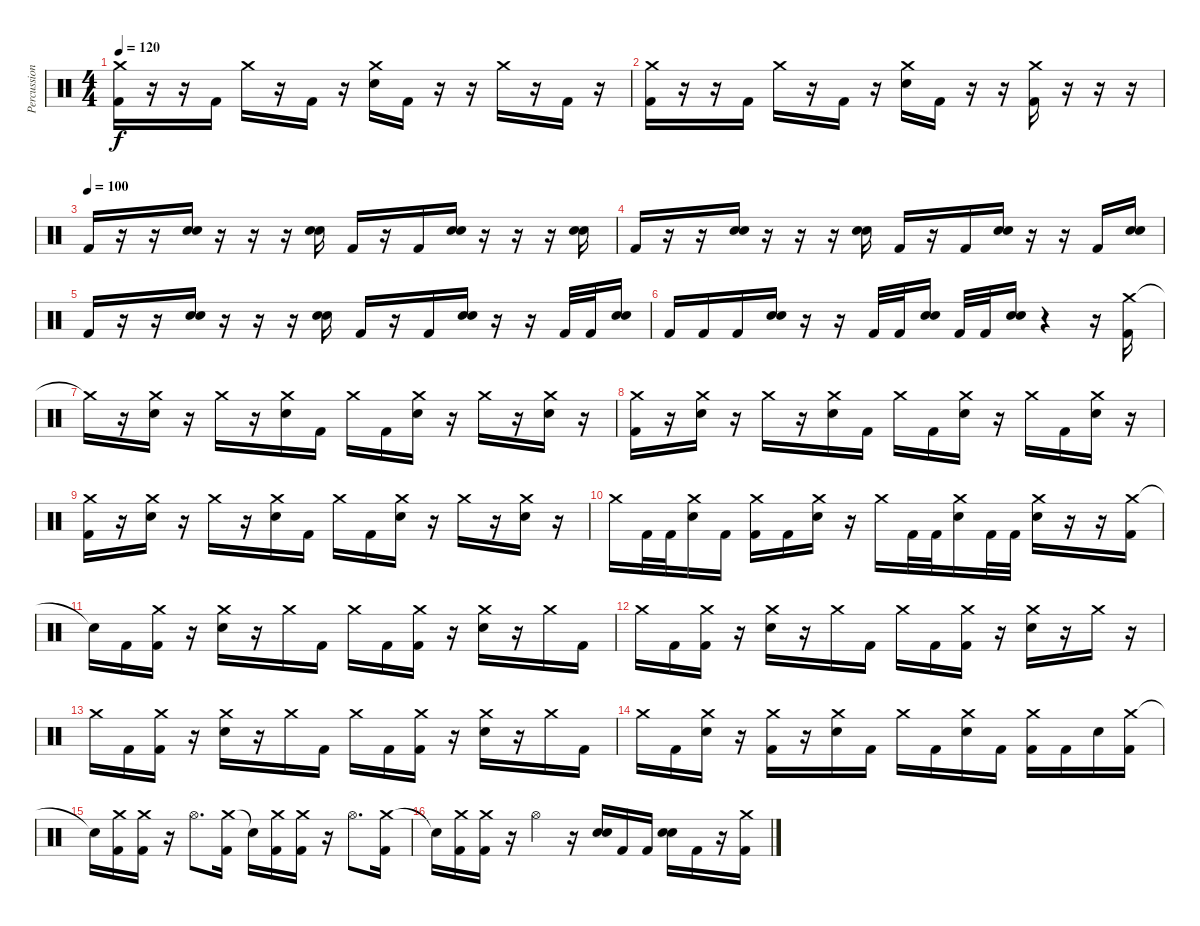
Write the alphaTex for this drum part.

\track ("Percussion" "Percussion") {instrument percussion}
\staff {score}
\articulation defaults
\ts (4 4)
\tempo 120
\clef neutral
\ks c
("Crash medium (hit)" "Kick (hit) 2").16{dy f} r.16 r.16 "Kick (hit) 2".16 "Crash medium (hit)".16 r.16 "Kick (hit) 2".16 r.16 ("Crash medium (hit)" "Electric Snare (hit)").16 "Kick (hit) 2".16 r.16 r.16 "Crash medium (hit)".16 r.16 "Kick (hit) 2".16 r.16 |
("Crash medium (hit)" "Kick (hit) 2").16 r.16 r.16 "Kick (hit) 2".16 "Crash medium (hit)".16 r.16 "Kick (hit) 2".16 r.16 ("Crash medium (hit)" "Electric Snare (hit)").16 "Kick (hit) 2".16 r.16 r.16 ("Crash medium (hit)" "Kick (hit) 2").16 r.16 r.16 r.16 |
\tempo (100)
"Kick (hit) 2".16 r.16 r.16 ("Electric Snare (hit)" "Electric Snare (hit)").16{bu 60} r.16 r.16 r.16 ("Electric Snare (hit)" "Electric Snare (hit)").16{bu 60} "Kick (hit) 2".16 r.16 "Kick (hit) 2".16 ("Electric Snare (hit)" "Electric Snare (hit)").16{bu 60} r.16 r.16 r.16 ("Electric Snare (hit)" "Electric Snare (hit)").16{bu 60} |
"Kick (hit) 2".16 r.16 r.16 ("Electric Snare (hit)" "Electric Snare (hit)").16{bu 60} r.16 r.16 r.16 ("Electric Snare (hit)" "Electric Snare (hit)").16{bu 60} "Kick (hit) 2".16 r.16 "Kick (hit) 2".16 ("Electric Snare (hit)" "Electric Snare (hit)").16{bu 60} r.16 r.16 "Kick (hit) 2".16 ("Electric Snare (hit)" "Electric Snare (hit)").16{bu 60} |
"Kick (hit) 2".16 r.16 r.16 ("Electric Snare (hit)" "Electric Snare (hit)").16{bu 60} r.16 r.16 r.16 ("Electric Snare (hit)" "Electric Snare (hit)").16{bu 60} "Kick (hit) 2".16 r.16 "Kick (hit) 2".16 ("Electric Snare (hit)" "Electric Snare (hit)").16{bu 60} r.16 r.16 "Kick (hit) 2".32 "Kick (hit) 2".32 ("Electric Snare (hit)" "Electric Snare (hit)").16 |
"Kick (hit) 2".16 "Kick (hit) 2".16 "Kick (hit) 2".16 ("Electric Snare (hit)" "Electric Snare (hit)").16{bu 60} r.16 r.16 "Kick (hit) 2".32 "Kick (hit) 2".32 ("Electric Snare (hit)" "Electric Snare (hit)").16{bu 60} "Kick (hit) 2".32 "Kick (hit) 2".32 ("Electric Snare (hit)" "Electric Snare (hit)").16{bu 60} r.4 r.16 ("Crash medium (hit)" "Kick (hit) 2").16 |
"Crash medium (hit)"{t}.16 r.16 ("Crash medium (hit)" "Electric Snare (hit)").16 r.16 "Crash medium (hit)".16 r.16 ("Crash medium (hit)" "Electric Snare (hit)").16 "Kick (hit) 2".16 "Crash medium (hit)".16 "Kick (hit) 2".16 ("Crash medium (hit)" "Electric Snare (hit)").16 r.16 "Crash medium (hit)".16 r.16 ("Crash medium (hit)" "Electric Snare (hit)").16 r.16 |
("Crash medium (hit)" "Kick (hit) 2").16 r.16 ("Crash medium (hit)" "Electric Snare (hit)").16 r.16 "Crash medium (hit)".16 r.16 ("Crash medium (hit)" "Electric Snare (hit)").16 "Kick (hit) 2".16 "Crash medium (hit)".16 "Kick (hit) 2".16 ("Crash medium (hit)" "Electric Snare (hit)").16 r.16 "Crash medium (hit)".16 "Kick (hit) 2".16 ("Crash medium (hit)" "Electric Snare (hit)").16 r.16 |
("Crash medium (hit)" "Kick (hit) 2").16 r.16 ("Crash medium (hit)" "Electric Snare (hit)").16 r.16 "Crash medium (hit)".16 r.16 ("Crash medium (hit)" "Electric Snare (hit)").16 "Kick (hit) 2".16 "Crash medium (hit)".16 "Kick (hit) 2".16 ("Crash medium (hit)" "Electric Snare (hit)").16 r.16 "Crash medium (hit)".16 r.16 ("Crash medium (hit)" "Electric Snare (hit)").16 r.16 |
"Crash medium (hit)".16 "Kick (hit) 2".32 "Kick (hit) 2".32 ("Crash medium (hit)" "Electric Snare (hit)").16 "Kick (hit) 2".16 ("Crash medium (hit)" "Kick (hit) 2").16 "Kick (hit) 2".16 ("Crash medium (hit)" "Electric Snare (hit)").16 r.16 "Crash medium (hit)".16 "Kick (hit) 2".32 "Kick (hit) 2".32 ("Crash medium (hit)" "Electric Snare (hit)").16 "Kick (hit) 2".32 "Kick (hit) 2".32 ("Crash medium (hit)" "Electric Snare (hit)").16 r.16 r.16 ("Crash medium (hit)" "Kick (hit) 2").16 |
"Snare (hit)"{t}.16 "Kick (hit) 2".16 ("Crash medium (hit)" "Kick (hit) 2").16 r.16 ("Crash medium (hit)" "Electric Snare (hit)").16 r.16 "Crash medium (hit)".16 "Kick (hit) 2".16 "Crash medium (hit)".16 "Kick (hit) 2".16 ("Crash medium (hit)" "Kick (hit) 2").16 r.16 ("Crash medium (hit)" "Electric Snare (hit)").16 r.16 "Crash medium (hit)".16 "Kick (hit) 2".16 |
"Crash medium (hit)".16 "Kick (hit) 2".16 ("Crash medium (hit)" "Kick (hit) 2").16 r.16 ("Crash medium (hit)" "Electric Snare (hit)").16 r.16 "Crash medium (hit)".16 "Kick (hit) 2".16 "Crash medium (hit)".16 "Kick (hit) 2".16 ("Crash medium (hit)" "Kick (hit) 2").16 r.16 ("Crash medium (hit)" "Electric Snare (hit)").16 r.16 "Crash medium (hit)".16 r.16 |
"Crash medium (hit)".16 "Kick (hit) 2".16 ("Crash medium (hit)" "Kick (hit) 2").16 r.16 ("Crash medium (hit)" "Electric Snare (hit)").16 r.16 "Crash medium (hit)".16 "Kick (hit) 2".16 "Crash medium (hit)".16 "Kick (hit) 2".16 ("Crash medium (hit)" "Kick (hit) 2").16 r.16 ("Crash medium (hit)" "Electric Snare (hit)").16 r.16 "Crash medium (hit)".16 "Kick (hit) 2".16 |
"Crash medium (hit)".16 "Kick (hit) 2".16 ("Crash medium (hit)" "Electric Snare (hit)").16 r.16 ("Crash medium (hit)" "Kick (hit) 2").16 r.16 ("Crash medium (hit)" "Electric Snare (hit)").16 "Kick (hit) 2".16 "Crash medium (hit)".16 "Kick (hit) 2".16 ("Crash medium (hit)" "Electric Snare (hit)").16 "Kick (hit) 2".16 ("Crash medium (hit)" "Kick (hit) 2").16 "Kick (hit) 2".16 "Electric Snare (hit)".16 ("Crash medium (hit)" "Kick (hit) 2").16 |
"Snare (hit)"{t}.16 ("Crash medium (hit)" "Kick (hit) 2").16 ("Crash medium (hit)" "Kick (hit) 2").16 r.16 "Hi-Hat (open)".8{d} ("Crash medium (hit)" "Kick (hit) 2").16 "Snare (hit)"{t}.16 ("Crash medium (hit)" "Kick (hit) 2").16 ("Crash medium (hit)" "Kick (hit) 2").16 r.16 "Hi-Hat (open)".8{d} ("Crash medium (hit)" "Kick (hit) 2").16 |
"Snare (hit)"{t}.16 ("Crash medium (hit)" "Kick (hit) 2").16 ("Crash medium (hit)" "Kick (hit) 2").16 r.16 "Hi-Hat (open)".4 r.16 ("Electric Snare (hit)" "Electric Snare (hit)").16{bu 60} "Kick (hit) 2".16 "Kick (hit) 2".16 ("Electric Snare (hit)" "Electric Snare (hit)").16{bu 60} "Kick (hit) 2".16 r.16 ("Crash medium (hit)" "Kick (hit) 2").16
